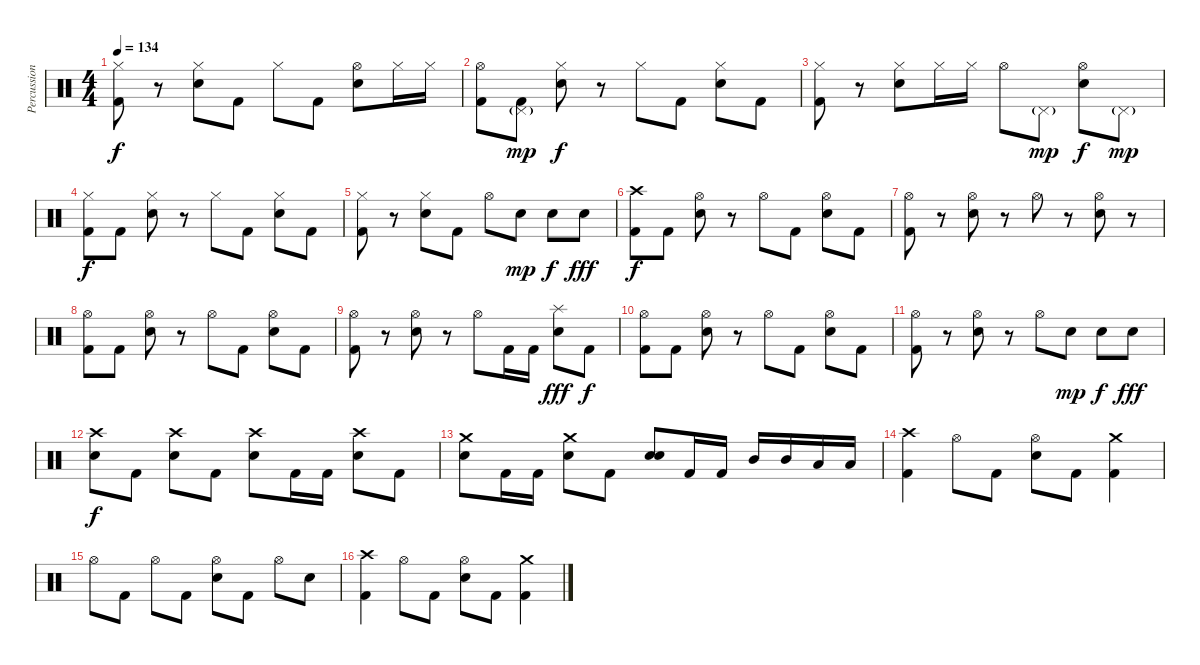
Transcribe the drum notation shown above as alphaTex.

\track ("Percussion" "Percussion") {instrument percussion}
\staff {score}
\articulation defaults
\ts (4 4)
\tempo 134
\clef neutral
\ks c
("Hi-Hat (closed)" "Kick (hit) 2").8{dy f} r.8 ("Hi-Hat (closed)" "Snare (hit) 2").8 "Kick (hit) 2".8 "Hi-Hat (closed)".8 "Kick (hit) 2".8 ("Hi-Hat (open)" "Snare (hit) 2").8 "Hi-Hat (closed)".16 "Hi-Hat (closed)".16 |
("Hi-Hat (open)" "Kick (hit) 2").8 ("Pedal Hi-Hat (hit)"{g} "Kick (hit) 2").8{dy mp} ("Hi-Hat (closed)" "Snare (hit) 2").8{dy f} r.8 "Hi-Hat (closed)".8 "Kick (hit) 2".8 ("Hi-Hat (closed)" "Snare (hit) 2").8 "Kick (hit) 2".8 |
("Hi-Hat (closed)" "Kick (hit) 2").8 r.8 ("Hi-Hat (closed)" "Snare (hit) 2").8 "Hi-Hat (closed)".16 "Hi-Hat (closed)".16 "Hi-Hat (open)".8 "Pedal Hi-Hat (hit)"{g}.8{dy mp} ("Hi-Hat (open)" "Snare (hit) 2").8{dy f} "Pedal Hi-Hat (hit)"{g}.8{dy mp} |
("Hi-Hat (closed)" "Kick (hit) 2").8{dy f} "Kick (hit) 2".8 ("Hi-Hat (closed)" "Snare (hit) 2").8 r.8 "Hi-Hat (closed)".8 "Kick (hit) 2".8 ("Hi-Hat (closed)" "Snare (hit) 2").8 "Kick (hit) 2".8 |
("Hi-Hat (closed)" "Kick (hit) 2").8 r.8 ("Hi-Hat (closed)" "Snare (hit) 2").8 "Kick (hit) 2".8 "Hi-Hat (open)".8 "Snare (hit) 2".8{dy mp} "Snare (hit) 2".8{dy f} "Snare (hit) 2".8{dy fff} |
("Crash high (hit)" "Kick (hit) 2").8{dy f} "Kick (hit) 2".8 ("Hi-Hat (open)" "Snare (hit) 2").8 r.8 "Hi-Hat (open)".8 "Kick (hit) 2".8 ("Hi-Hat (open)" "Snare (hit) 2").8 "Kick (hit) 2".8 |
("Hi-Hat (open)" "Kick (hit) 2").8 r.8 ("Hi-Hat (open)" "Snare (hit) 2").8 r.8 "Hi-Hat (open)".8 r.8 ("Hi-Hat (open)" "Snare (hit) 2").8 r.8 |
("Hi-Hat (open)" "Kick (hit) 2").8 "Kick (hit) 2".8 ("Hi-Hat (open)" "Snare (hit) 2").8 r.8 "Hi-Hat (open)".8 "Kick (hit) 2".8 ("Hi-Hat (open)" "Snare (hit) 2").8 "Kick (hit) 2".8 |
("Hi-Hat (open)" "Kick (hit) 2").8 r.8 ("Hi-Hat (open)" "Snare (hit) 2").8 r.8 "Hi-Hat (open)".8 "Kick (hit) 2".16 "Kick (hit) 2".16 ("Splash (hit)" "Snare (hit) 2").8{dy fff} "Kick (hit) 2".8{dy f} |
("Hi-Hat (open)" "Kick (hit) 2").8 "Kick (hit) 2".8 ("Hi-Hat (open)" "Snare (hit) 2").8 r.8 "Hi-Hat (open)".8 "Kick (hit) 2".8 ("Hi-Hat (open)" "Snare (hit) 2").8 "Kick (hit) 2".8 |
("Hi-Hat (open)" "Kick (hit) 2").8 r.8 ("Hi-Hat (open)" "Snare (hit) 2").8 r.8 "Hi-Hat (open)".8 "Snare (hit) 2".8{dy mp} "Snare (hit) 2".8{dy f} "Snare (hit) 2".8{dy fff} |
("Crash high (hit)" "Snare (hit) 2").8{dy f} "Kick (hit) 2".8 ("Crash high (hit)" "Snare (hit) 2").8 "Kick (hit) 2".8 ("Crash high (hit)" "Snare (hit) 2").8 "Kick (hit) 2".16 "Kick (hit) 2".16 ("Crash high (hit)" "Snare (hit) 2").8 "Kick (hit) 2".8 |
("Crash medium (hit)" "Snare (hit) 2").8 "Kick (hit) 2".16 "Kick (hit) 2".16 ("Crash medium (hit)" "Snare (hit) 2").8 "Kick (hit) 2".8 ("Snare (hit) 2" "Snare (hit) 2").8{bd 240} "Kick (hit) 2".16 "Kick (hit) 2".16 "Mid Tom (hit)".16 "Mid Tom (hit)".16 "Low Tom (hit)".16 "Low Tom (hit)".16 |
("Crash high (hit)" "Kick (hit) 2").4 "Hi-Hat (open)".8 "Kick (hit) 2".8 ("Hi-Hat (open)" "Snare (hit) 2").8 "Kick (hit) 2".8 ("Crash medium (hit)" "Kick (hit) 2").4 |
"Hi-Hat (open)".8 "Kick (hit) 2".8 "Hi-Hat (open)".8 "Kick (hit) 2".8 ("Hi-Hat (open)" "Snare (hit) 2").8 "Kick (hit) 2".8 "Hi-Hat (open)".8 "Snare (hit) 2".8 |
("Crash high (hit)" "Kick (hit) 2").4 "Hi-Hat (open)".8 "Kick (hit) 2".8 ("Hi-Hat (open)" "Snare (hit) 2").8 "Kick (hit) 2".8 ("Crash medium (hit)" "Kick (hit) 2").4
